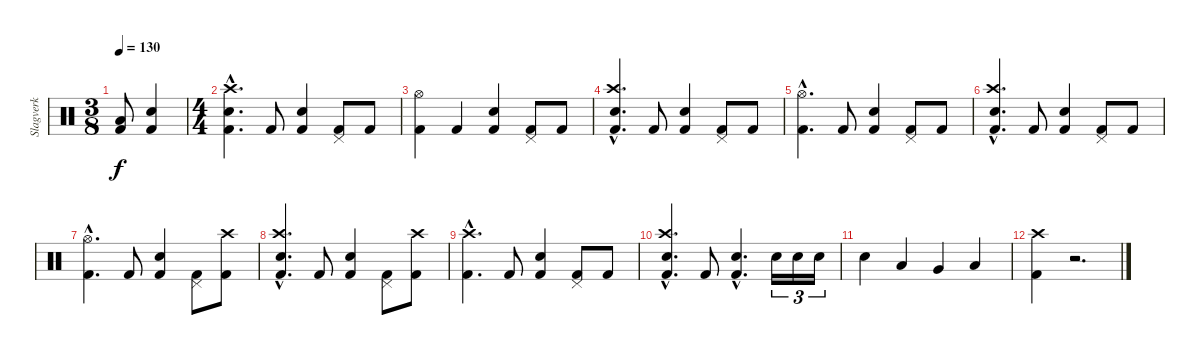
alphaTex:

\track ("Slagverk" "Slagverk") {instrument percussion}
\staff {score}
\articulation defaults
\ts (3 8)
\tempo 130
\clef neutral
\ks c
("Low Tom (hit)" "Kick (hit) 2").8{dy f} ("Electric Snare (hit)" "Kick (hit) 2").4 |
\ts (4 4)
("Crash high (hit)"{hac} "Electric Snare (hit)"{hac} "Kick (hit) 2"{hac}).4{d} "Kick (hit) 2".8 ("Electric Snare (hit)" "Kick (hit) 2").4 ("Pedal Hi-Hat (hit)" "Kick (hit) 2").8 "Kick (hit) 2".8 |
("Hi-Hat (open)" "Kick (hit) 2").4 "Kick (hit) 2".4 ("Electric Snare (hit)" "Kick (hit) 2").4 ("Pedal Hi-Hat (hit)" "Kick (hit) 2").8 "Kick (hit) 2".8 |
("Crash high (hit)"{hac} "Snare (hit) 2"{hac} "Kick (hit) 2"{hac}).4{d} "Kick (hit) 2".8 ("Electric Snare (hit)" "Kick (hit) 2").4 ("Pedal Hi-Hat (hit)" "Kick (hit) 2").8 "Kick (hit) 2".8 |
("Hi-Hat (open)"{hac} "Kick (hit) 2"{hac}).4{d} "Kick (hit) 2".8 ("Electric Snare (hit)" "Kick (hit) 2").4 ("Pedal Hi-Hat (hit)" "Kick (hit) 2").8 "Kick (hit) 2".8 |
("Crash high (hit)"{hac} "Snare (hit) 2"{hac} "Kick (hit) 2"{hac}).4{d} "Kick (hit) 2".8 ("Electric Snare (hit)" "Kick (hit) 2").4 ("Pedal Hi-Hat (hit)" "Kick (hit) 2").8 "Kick (hit) 2".8 |
("Hi-Hat (open)"{hac} "Kick (hit) 2"{hac}).4{d} "Kick (hit) 2".8 ("Electric Snare (hit)" "Kick (hit) 2").4 ("Pedal Hi-Hat (hit)" "Kick (hit) 2").8 ("Crash high (hit)" "Kick (hit) 2").8 |
("Crash high (hit)"{hac} "Snare (hit) 2"{hac} "Kick (hit) 2"{hac}).4{d} "Kick (hit) 2".8 ("Electric Snare (hit)" "Kick (hit) 2").4 ("Pedal Hi-Hat (hit)" "Kick (hit) 2").8 ("Crash high (hit)" "Kick (hit) 2").8 |
("Crash high (hit)"{hac} "Kick (hit) 2"{hac}).4{d} "Kick (hit) 2".8 ("Electric Snare (hit)" "Kick (hit) 2").4 ("Pedal Hi-Hat (hit)" "Kick (hit) 2").8 "Kick (hit) 2".8 |
("Crash high (hit)"{hac} "Snare (hit) 2"{hac} "Kick (hit) 2"{hac}).4{d} "Kick (hit) 2".8 ("Electric Snare (hit)"{hac} "Kick (hit) 2"{hac}).4{d} "Electric Snare (hit)".16{tu (3 2)} "Electric Snare (hit)".16{tu (3 2)} "Electric Snare (hit)".16{tu (3 2)} |
"Electric Snare (hit)".4 "Low Tom (hit)".4 "Very Low Tom (hit)".4 "Low Floor Tom (hit)".4 |
("Crash high (hit)" "Kick (hit) 2").4 r.2{d}
